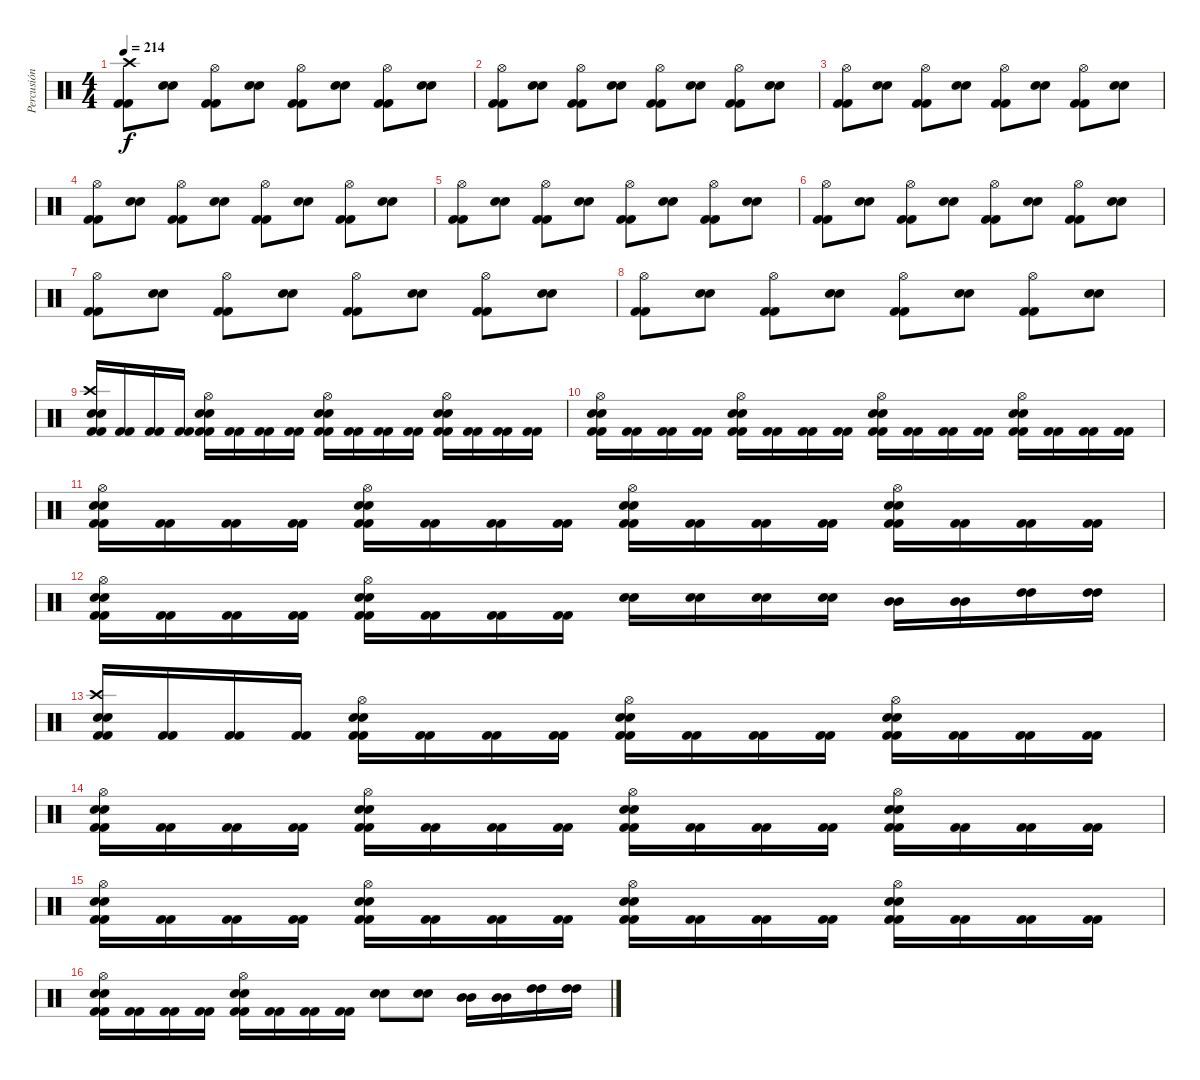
\track ("Percusión" "Percusión") {instrument percussion}
\staff {score}
\articulation defaults
\ts (4 4)
\tempo 214
\clef neutral
\ks c
("Kick (hit) 2" "Kick (hit) 2" "Crash high (hit)").8{dy f} ("Electric Snare (hit)" "Electric Snare (hit)").8 ("Kick (hit) 2" "Kick (hit) 2" "Hi-Hat (open)").8 ("Electric Snare (hit)" "Electric Snare (hit)").8 ("Kick (hit) 2" "Kick (hit) 2" "Hi-Hat (open)").8 ("Electric Snare (hit)" "Electric Snare (hit)").8 ("Kick (hit) 2" "Kick (hit) 2" "Hi-Hat (open)").8 ("Electric Snare (hit)" "Electric Snare (hit)").8 |
("Kick (hit) 2" "Kick (hit) 2" "Hi-Hat (open)").8 ("Electric Snare (hit)" "Electric Snare (hit)").8 ("Kick (hit) 2" "Kick (hit) 2" "Hi-Hat (open)").8 ("Electric Snare (hit)" "Electric Snare (hit)").8 ("Kick (hit) 2" "Kick (hit) 2" "Hi-Hat (open)").8 ("Electric Snare (hit)" "Electric Snare (hit)").8 ("Kick (hit) 2" "Kick (hit) 2" "Hi-Hat (open)").8 ("Electric Snare (hit)" "Electric Snare (hit)").8 |
("Kick (hit) 2" "Kick (hit) 2" "Hi-Hat (open)").8 ("Electric Snare (hit)" "Electric Snare (hit)").8 ("Kick (hit) 2" "Kick (hit) 2" "Hi-Hat (open)").8 ("Electric Snare (hit)" "Electric Snare (hit)").8 ("Kick (hit) 2" "Kick (hit) 2" "Hi-Hat (open)").8 ("Electric Snare (hit)" "Electric Snare (hit)").8 ("Kick (hit) 2" "Kick (hit) 2" "Hi-Hat (open)").8 ("Electric Snare (hit)" "Electric Snare (hit)").8 |
("Kick (hit) 2" "Kick (hit) 2" "Hi-Hat (open)").8 ("Electric Snare (hit)" "Electric Snare (hit)").8 ("Kick (hit) 2" "Kick (hit) 2" "Hi-Hat (open)").8 ("Electric Snare (hit)" "Electric Snare (hit)").8 ("Kick (hit) 2" "Kick (hit) 2" "Hi-Hat (open)").8 ("Electric Snare (hit)" "Electric Snare (hit)").8 ("Kick (hit) 2" "Kick (hit) 2" "Hi-Hat (open)").8 ("Electric Snare (hit)" "Electric Snare (hit)").8 |
("Kick (hit) 2" "Kick (hit) 2" "Hi-Hat (open)").8 ("Electric Snare (hit)" "Electric Snare (hit)").8 ("Kick (hit) 2" "Kick (hit) 2" "Hi-Hat (open)").8 ("Electric Snare (hit)" "Electric Snare (hit)").8 ("Kick (hit) 2" "Kick (hit) 2" "Hi-Hat (open)").8 ("Electric Snare (hit)" "Electric Snare (hit)").8 ("Kick (hit) 2" "Kick (hit) 2" "Hi-Hat (open)").8 ("Electric Snare (hit)" "Electric Snare (hit)").8 |
("Kick (hit) 2" "Kick (hit) 2" "Hi-Hat (open)").8 ("Electric Snare (hit)" "Electric Snare (hit)").8 ("Kick (hit) 2" "Kick (hit) 2" "Hi-Hat (open)").8 ("Electric Snare (hit)" "Electric Snare (hit)").8 ("Kick (hit) 2" "Kick (hit) 2" "Hi-Hat (open)").8 ("Electric Snare (hit)" "Electric Snare (hit)").8 ("Kick (hit) 2" "Kick (hit) 2" "Hi-Hat (open)").8 ("Electric Snare (hit)" "Electric Snare (hit)").8 |
("Kick (hit) 2" "Kick (hit) 2" "Hi-Hat (open)").8 ("Electric Snare (hit)" "Electric Snare (hit)").8 ("Kick (hit) 2" "Kick (hit) 2" "Hi-Hat (open)").8 ("Electric Snare (hit)" "Electric Snare (hit)").8 ("Kick (hit) 2" "Kick (hit) 2" "Hi-Hat (open)").8 ("Electric Snare (hit)" "Electric Snare (hit)").8 ("Kick (hit) 2" "Kick (hit) 2" "Hi-Hat (open)").8 ("Electric Snare (hit)" "Electric Snare (hit)").8 |
("Kick (hit) 2" "Kick (hit) 2" "Hi-Hat (open)").8 ("Electric Snare (hit)" "Electric Snare (hit)").8 ("Kick (hit) 2" "Kick (hit) 2" "Hi-Hat (open)").8 ("Electric Snare (hit)" "Electric Snare (hit)").8 ("Kick (hit) 2" "Kick (hit) 2" "Hi-Hat (open)").8 ("Electric Snare (hit)" "Electric Snare (hit)").8 ("Kick (hit) 2" "Kick (hit) 2" "Hi-Hat (open)").8 ("Electric Snare (hit)" "Electric Snare (hit)").8 |
("Kick (hit) 2" "Kick (hit) 2" "Electric Snare (hit)" "Electric Snare (hit)" "Crash high (hit)").16 ("Kick (hit) 2" "Kick (hit) 2").16 ("Kick (hit) 2" "Kick (hit) 2").16 ("Kick (hit) 2" "Kick (hit) 2").16 ("Kick (hit) 2" "Kick (hit) 2" "Electric Snare (hit)" "Electric Snare (hit)" "Hi-Hat (open)").16 ("Kick (hit) 2" "Kick (hit) 2").16 ("Kick (hit) 2" "Kick (hit) 2").16 ("Kick (hit) 2" "Kick (hit) 2").16 ("Kick (hit) 2" "Kick (hit) 2" "Electric Snare (hit)" "Electric Snare (hit)" "Hi-Hat (open)").16 ("Kick (hit) 2" "Kick (hit) 2").16 ("Kick (hit) 2" "Kick (hit) 2").16 ("Kick (hit) 2" "Kick (hit) 2").16 ("Kick (hit) 2" "Kick (hit) 2" "Electric Snare (hit)" "Electric Snare (hit)" "Hi-Hat (open)").16 ("Kick (hit) 2" "Kick (hit) 2").16 ("Kick (hit) 2" "Kick (hit) 2").16 ("Kick (hit) 2" "Kick (hit) 2").16 |
("Kick (hit) 2" "Kick (hit) 2" "Electric Snare (hit)" "Electric Snare (hit)" "Hi-Hat (open)").16 ("Kick (hit) 2" "Kick (hit) 2").16 ("Kick (hit) 2" "Kick (hit) 2").16 ("Kick (hit) 2" "Kick (hit) 2").16 ("Kick (hit) 2" "Kick (hit) 2" "Electric Snare (hit)" "Electric Snare (hit)" "Hi-Hat (open)").16 ("Kick (hit) 2" "Kick (hit) 2").16 ("Kick (hit) 2" "Kick (hit) 2").16 ("Kick (hit) 2" "Kick (hit) 2").16 ("Kick (hit) 2" "Kick (hit) 2" "Electric Snare (hit)" "Electric Snare (hit)" "Hi-Hat (open)").16 ("Kick (hit) 2" "Kick (hit) 2").16 ("Kick (hit) 2" "Kick (hit) 2").16 ("Kick (hit) 2" "Kick (hit) 2").16 ("Kick (hit) 2" "Kick (hit) 2" "Electric Snare (hit)" "Electric Snare (hit)" "Hi-Hat (open)").16 ("Kick (hit) 2" "Kick (hit) 2").16 ("Kick (hit) 2" "Kick (hit) 2").16 ("Kick (hit) 2" "Kick (hit) 2").16 |
("Kick (hit) 2" "Kick (hit) 2" "Electric Snare (hit)" "Electric Snare (hit)" "Hi-Hat (open)").16 ("Kick (hit) 2" "Kick (hit) 2").16 ("Kick (hit) 2" "Kick (hit) 2").16 ("Kick (hit) 2" "Kick (hit) 2").16 ("Kick (hit) 2" "Kick (hit) 2" "Electric Snare (hit)" "Electric Snare (hit)" "Hi-Hat (open)").16 ("Kick (hit) 2" "Kick (hit) 2").16 ("Kick (hit) 2" "Kick (hit) 2").16 ("Kick (hit) 2" "Kick (hit) 2").16 ("Kick (hit) 2" "Kick (hit) 2" "Electric Snare (hit)" "Electric Snare (hit)" "Hi-Hat (open)").16 ("Kick (hit) 2" "Kick (hit) 2").16 ("Kick (hit) 2" "Kick (hit) 2").16 ("Kick (hit) 2" "Kick (hit) 2").16 ("Kick (hit) 2" "Kick (hit) 2" "Electric Snare (hit)" "Electric Snare (hit)" "Hi-Hat (open)").16 ("Kick (hit) 2" "Kick (hit) 2").16 ("Kick (hit) 2" "Kick (hit) 2").16 ("Kick (hit) 2" "Kick (hit) 2").16 |
("Kick (hit) 2" "Kick (hit) 2" "Electric Snare (hit)" "Electric Snare (hit)" "Hi-Hat (open)").16 ("Kick (hit) 2" "Kick (hit) 2").16 ("Kick (hit) 2" "Kick (hit) 2").16 ("Kick (hit) 2" "Kick (hit) 2").16 ("Kick (hit) 2" "Kick (hit) 2" "Electric Snare (hit)" "Electric Snare (hit)" "Hi-Hat (open)").16 ("Kick (hit) 2" "Kick (hit) 2").16 ("Kick (hit) 2" "Kick (hit) 2").16 ("Kick (hit) 2" "Kick (hit) 2").16 ("Electric Snare (hit)" "Electric Snare (hit)").16 ("Electric Snare (hit)" "Electric Snare (hit)").16 ("Electric Snare (hit)" "Electric Snare (hit)").16 ("Electric Snare (hit)" "Electric Snare (hit)").16 ("Mid Tom (hit)" "Mid Tom (hit)").16 ("Mid Tom (hit)" "Mid Tom (hit)").16 ("High Tom (hit)" "High Tom (hit)").16 ("High Tom (hit)" "High Tom (hit)").16 |
("Kick (hit) 2" "Kick (hit) 2" "Electric Snare (hit)" "Electric Snare (hit)" "Crash high (hit)").16 ("Kick (hit) 2" "Kick (hit) 2").16 ("Kick (hit) 2" "Kick (hit) 2").16 ("Kick (hit) 2" "Kick (hit) 2").16 ("Kick (hit) 2" "Kick (hit) 2" "Electric Snare (hit)" "Electric Snare (hit)" "Hi-Hat (open)").16 ("Kick (hit) 2" "Kick (hit) 2").16 ("Kick (hit) 2" "Kick (hit) 2").16 ("Kick (hit) 2" "Kick (hit) 2").16 ("Kick (hit) 2" "Kick (hit) 2" "Electric Snare (hit)" "Electric Snare (hit)" "Hi-Hat (open)").16 ("Kick (hit) 2" "Kick (hit) 2").16 ("Kick (hit) 2" "Kick (hit) 2").16 ("Kick (hit) 2" "Kick (hit) 2").16 ("Kick (hit) 2" "Kick (hit) 2" "Electric Snare (hit)" "Electric Snare (hit)" "Hi-Hat (open)").16 ("Kick (hit) 2" "Kick (hit) 2").16 ("Kick (hit) 2" "Kick (hit) 2").16 ("Kick (hit) 2" "Kick (hit) 2").16 |
("Kick (hit) 2" "Kick (hit) 2" "Electric Snare (hit)" "Electric Snare (hit)" "Hi-Hat (open)").16 ("Kick (hit) 2" "Kick (hit) 2").16 ("Kick (hit) 2" "Kick (hit) 2").16 ("Kick (hit) 2" "Kick (hit) 2").16 ("Kick (hit) 2" "Kick (hit) 2" "Electric Snare (hit)" "Electric Snare (hit)" "Hi-Hat (open)").16 ("Kick (hit) 2" "Kick (hit) 2").16 ("Kick (hit) 2" "Kick (hit) 2").16 ("Kick (hit) 2" "Kick (hit) 2").16 ("Kick (hit) 2" "Kick (hit) 2" "Electric Snare (hit)" "Electric Snare (hit)" "Hi-Hat (open)").16 ("Kick (hit) 2" "Kick (hit) 2").16 ("Kick (hit) 2" "Kick (hit) 2").16 ("Kick (hit) 2" "Kick (hit) 2").16 ("Kick (hit) 2" "Kick (hit) 2" "Electric Snare (hit)" "Electric Snare (hit)" "Hi-Hat (open)").16 ("Kick (hit) 2" "Kick (hit) 2").16 ("Kick (hit) 2" "Kick (hit) 2").16 ("Kick (hit) 2" "Kick (hit) 2").16 |
("Kick (hit) 2" "Kick (hit) 2" "Electric Snare (hit)" "Electric Snare (hit)" "Hi-Hat (open)").16 ("Kick (hit) 2" "Kick (hit) 2").16 ("Kick (hit) 2" "Kick (hit) 2").16 ("Kick (hit) 2" "Kick (hit) 2").16 ("Kick (hit) 2" "Kick (hit) 2" "Electric Snare (hit)" "Electric Snare (hit)" "Hi-Hat (open)").16 ("Kick (hit) 2" "Kick (hit) 2").16 ("Kick (hit) 2" "Kick (hit) 2").16 ("Kick (hit) 2" "Kick (hit) 2").16 ("Kick (hit) 2" "Kick (hit) 2" "Electric Snare (hit)" "Electric Snare (hit)" "Hi-Hat (open)").16 ("Kick (hit) 2" "Kick (hit) 2").16 ("Kick (hit) 2" "Kick (hit) 2").16 ("Kick (hit) 2" "Kick (hit) 2").16 ("Kick (hit) 2" "Kick (hit) 2" "Electric Snare (hit)" "Electric Snare (hit)" "Hi-Hat (open)").16 ("Kick (hit) 2" "Kick (hit) 2").16 ("Kick (hit) 2" "Kick (hit) 2").16 ("Kick (hit) 2" "Kick (hit) 2").16 |
("Kick (hit) 2" "Kick (hit) 2" "Electric Snare (hit)" "Electric Snare (hit)" "Hi-Hat (open)").16 ("Kick (hit) 2" "Kick (hit) 2").16 ("Kick (hit) 2" "Kick (hit) 2").16 ("Kick (hit) 2" "Kick (hit) 2").16 ("Kick (hit) 2" "Kick (hit) 2" "Electric Snare (hit)" "Electric Snare (hit)" "Hi-Hat (open)").16 ("Kick (hit) 2" "Kick (hit) 2").16 ("Kick (hit) 2" "Kick (hit) 2").16 ("Kick (hit) 2" "Kick (hit) 2").16 ("Electric Snare (hit)" "Electric Snare (hit)").8 ("Electric Snare (hit)" "Electric Snare (hit)").8 ("Mid Tom (hit)" "Mid Tom (hit)").16 ("Mid Tom (hit)" "Mid Tom (hit)").16 ("High Tom (hit)" "High Tom (hit)").16 ("High Tom (hit)" "High Tom (hit)").16
